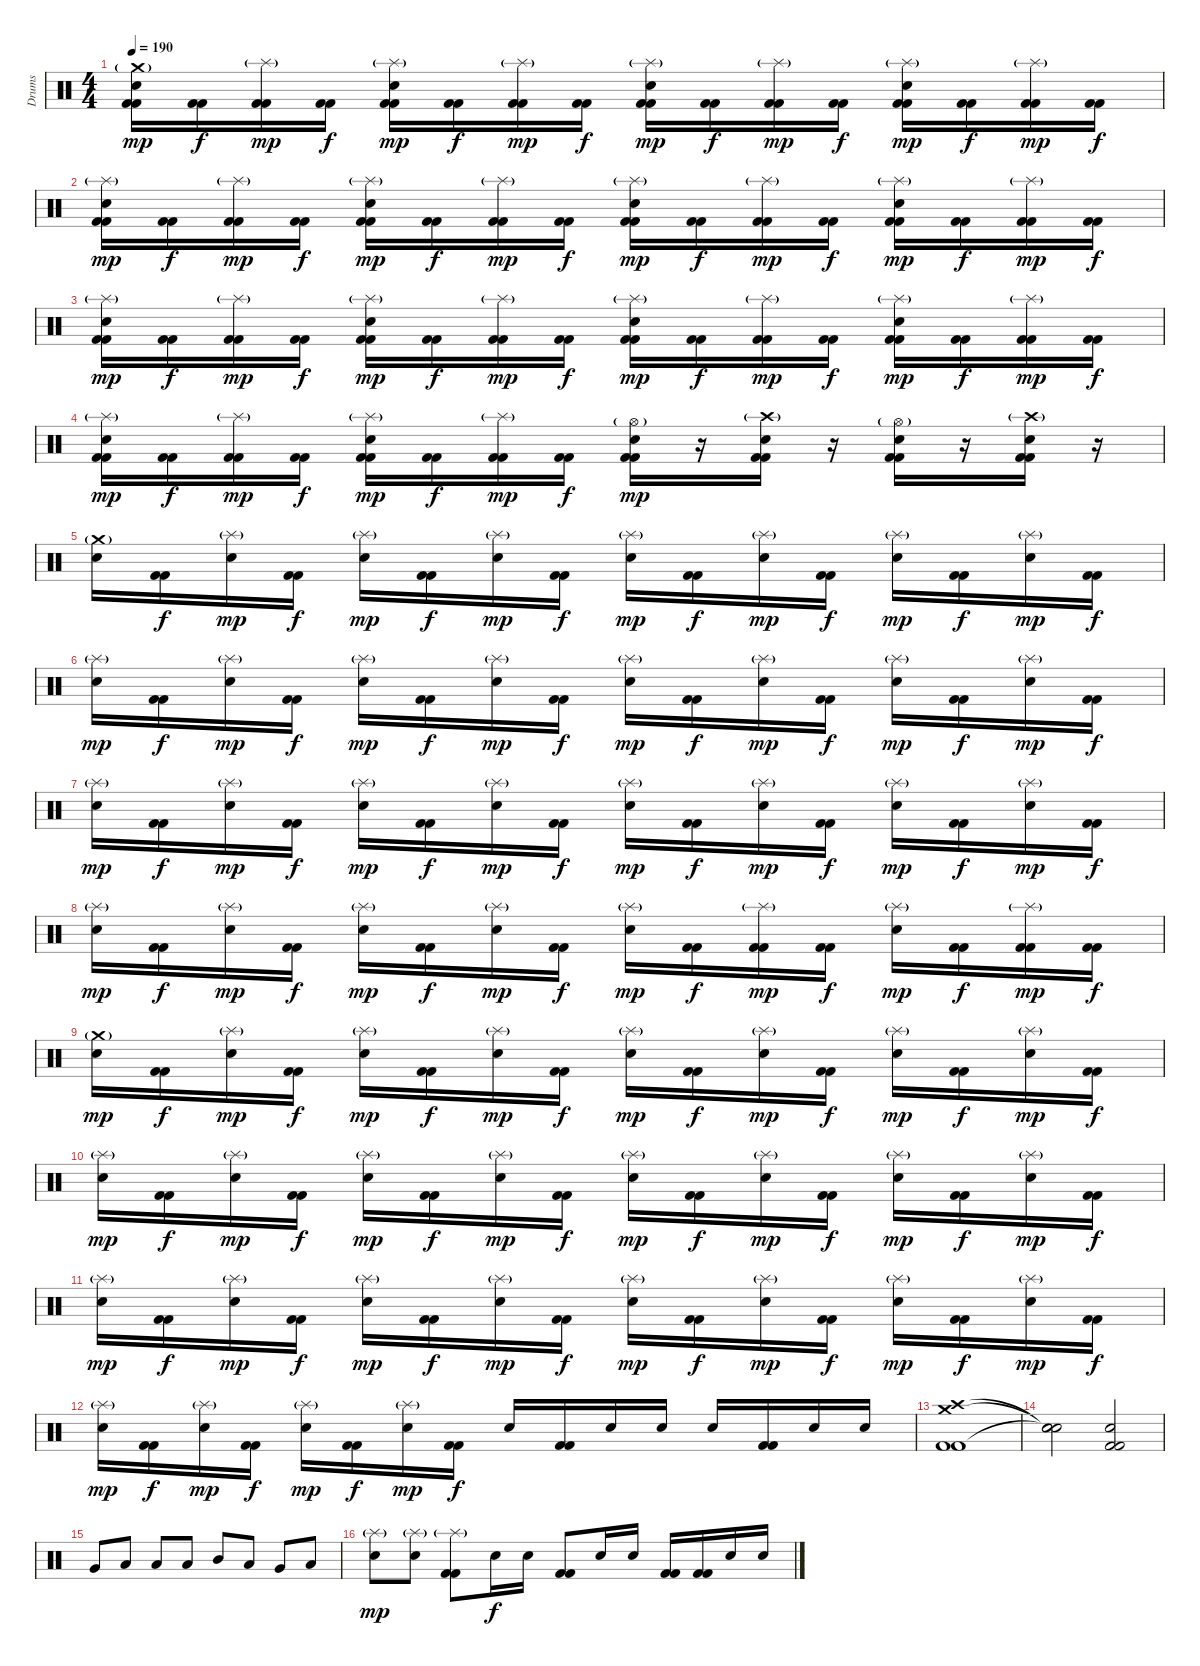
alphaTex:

\track ("Drums" "Drums") {instrument percussion}
\staff {score}
\articulation defaults
\ts (4 4)
\tempo 190
\clef neutral
\ks c
("Crash medium (hit)"{g} "Kick (hit) 2" "Electric Snare (hit)" "Kick (hit) 2").16{dy mp} ("Kick (hit) 2" "Kick (hit) 2").16{dy f} ("Splash (hit)"{g} "Kick (hit) 2" "Kick (hit) 2").16{dy mp} ("Kick (hit) 2" "Kick (hit) 2").16{dy f} ("Splash (hit)"{g} "Kick (hit) 2" "Electric Snare (hit)" "Kick (hit) 2").16{dy mp} ("Kick (hit) 2" "Kick (hit) 2").16{dy f} ("Splash (hit)"{g} "Kick (hit) 2" "Kick (hit) 2").16{dy mp} ("Kick (hit) 2" "Kick (hit) 2").16{dy f} ("Splash (hit)"{g} "Kick (hit) 2" "Electric Snare (hit)" "Kick (hit) 2").16{dy mp} ("Kick (hit) 2" "Kick (hit) 2").16{dy f} ("Splash (hit)"{g} "Kick (hit) 2" "Kick (hit) 2").16{dy mp} ("Kick (hit) 2" "Kick (hit) 2").16{dy f} ("Splash (hit)"{g} "Kick (hit) 2" "Electric Snare (hit)" "Kick (hit) 2").16{dy mp} ("Kick (hit) 2" "Kick (hit) 2").16{dy f} ("Splash (hit)"{g} "Kick (hit) 2" "Kick (hit) 2").16{dy mp} ("Kick (hit) 2" "Kick (hit) 2").16{dy f} |
("Splash (hit)"{g} "Kick (hit) 2" "Electric Snare (hit)" "Kick (hit) 2").16{dy mp} ("Kick (hit) 2" "Kick (hit) 2").16{dy f} ("Splash (hit)"{g} "Kick (hit) 2" "Kick (hit) 2").16{dy mp} ("Kick (hit) 2" "Kick (hit) 2").16{dy f} ("Splash (hit)"{g} "Kick (hit) 2" "Electric Snare (hit)" "Kick (hit) 2").16{dy mp} ("Kick (hit) 2" "Kick (hit) 2").16{dy f} ("Splash (hit)"{g} "Kick (hit) 2" "Kick (hit) 2").16{dy mp} ("Kick (hit) 2" "Kick (hit) 2").16{dy f} ("Splash (hit)"{g} "Kick (hit) 2" "Electric Snare (hit)" "Kick (hit) 2").16{dy mp} ("Kick (hit) 2" "Kick (hit) 2").16{dy f} ("Splash (hit)"{g} "Kick (hit) 2" "Kick (hit) 2").16{dy mp} ("Kick (hit) 2" "Kick (hit) 2").16{dy f} ("Splash (hit)"{g} "Kick (hit) 2" "Electric Snare (hit)" "Kick (hit) 2").16{dy mp} ("Kick (hit) 2" "Kick (hit) 2").16{dy f} ("Splash (hit)"{g} "Kick (hit) 2" "Kick (hit) 2").16{dy mp} ("Kick (hit) 2" "Kick (hit) 2").16{dy f} |
("Splash (hit)"{g} "Kick (hit) 2" "Electric Snare (hit)" "Kick (hit) 2").16{dy mp} ("Kick (hit) 2" "Kick (hit) 2").16{dy f} ("Splash (hit)"{g} "Kick (hit) 2" "Kick (hit) 2").16{dy mp} ("Kick (hit) 2" "Kick (hit) 2").16{dy f} ("Splash (hit)"{g} "Kick (hit) 2" "Electric Snare (hit)" "Kick (hit) 2").16{dy mp} ("Kick (hit) 2" "Kick (hit) 2").16{dy f} ("Splash (hit)"{g} "Kick (hit) 2" "Kick (hit) 2").16{dy mp} ("Kick (hit) 2" "Kick (hit) 2").16{dy f} ("Splash (hit)"{g} "Kick (hit) 2" "Electric Snare (hit)" "Kick (hit) 2").16{dy mp} ("Kick (hit) 2" "Kick (hit) 2").16{dy f} ("Splash (hit)"{g} "Kick (hit) 2" "Kick (hit) 2").16{dy mp} ("Kick (hit) 2" "Kick (hit) 2").16{dy f} ("Splash (hit)"{g} "Kick (hit) 2" "Electric Snare (hit)" "Kick (hit) 2").16{dy mp} ("Kick (hit) 2" "Kick (hit) 2").16{dy f} ("Splash (hit)"{g} "Kick (hit) 2" "Kick (hit) 2").16{dy mp} ("Kick (hit) 2" "Kick (hit) 2").16{dy f} |
("Splash (hit)"{g} "Kick (hit) 2" "Electric Snare (hit)" "Kick (hit) 2").16{dy mp} ("Kick (hit) 2" "Kick (hit) 2").16{dy f} ("Splash (hit)"{g} "Kick (hit) 2" "Kick (hit) 2").16{dy mp} ("Kick (hit) 2" "Kick (hit) 2").16{dy f} ("Splash (hit)"{g} "Kick (hit) 2" "Electric Snare (hit)" "Kick (hit) 2").16{dy mp} ("Kick (hit) 2" "Kick (hit) 2").16{dy f} ("Splash (hit)"{g} "Kick (hit) 2" "Kick (hit) 2").16{dy mp} ("Kick (hit) 2" "Kick (hit) 2").16{dy f} ("Kick (hit) 2" "Hi-Hat (open)"{g} "Electric Snare (hit)" "Kick (hit) 2").16{dy mp} r.16 ("Kick (hit) 2" "Crash high (hit)"{g} "Electric Snare (hit)" "Kick (hit) 2").16 r.16 ("Kick (hit) 2" "Hi-Hat (open)"{g} "Electric Snare (hit)" "Kick (hit) 2").16 r.16 ("Kick (hit) 2" "Crash high (hit)"{g} "Electric Snare (hit)" "Kick (hit) 2").16 r.16 |
("Crash medium (hit)"{g} "Electric Snare (hit)").16 ("Kick (hit) 2" "Kick (hit) 2").16{dy f} ("Splash (hit)"{g} "Electric Snare (hit)").16{dy mp} ("Kick (hit) 2" "Kick (hit) 2").16{dy f} ("Splash (hit)"{g} "Electric Snare (hit)").16{dy mp} ("Kick (hit) 2" "Kick (hit) 2").16{dy f} ("Splash (hit)"{g} "Electric Snare (hit)").16{dy mp} ("Kick (hit) 2" "Kick (hit) 2").16{dy f} ("Splash (hit)"{g} "Electric Snare (hit)").16{dy mp} ("Kick (hit) 2" "Kick (hit) 2").16{dy f} ("Splash (hit)"{g} "Electric Snare (hit)").16{dy mp} ("Kick (hit) 2" "Kick (hit) 2").16{dy f} ("Splash (hit)"{g} "Electric Snare (hit)").16{dy mp} ("Kick (hit) 2" "Kick (hit) 2").16{dy f} ("Splash (hit)"{g} "Electric Snare (hit)").16{dy mp} ("Kick (hit) 2" "Kick (hit) 2").16{dy f} |
("Splash (hit)"{g} "Electric Snare (hit)").16{dy mp} ("Kick (hit) 2" "Kick (hit) 2").16{dy f} ("Splash (hit)"{g} "Electric Snare (hit)").16{dy mp} ("Kick (hit) 2" "Kick (hit) 2").16{dy f} ("Splash (hit)"{g} "Electric Snare (hit)").16{dy mp} ("Kick (hit) 2" "Kick (hit) 2").16{dy f} ("Splash (hit)"{g} "Electric Snare (hit)").16{dy mp} ("Kick (hit) 2" "Kick (hit) 2").16{dy f} ("Splash (hit)"{g} "Electric Snare (hit)").16{dy mp} ("Kick (hit) 2" "Kick (hit) 2").16{dy f} ("Splash (hit)"{g} "Electric Snare (hit)").16{dy mp} ("Kick (hit) 2" "Kick (hit) 2").16{dy f} ("Splash (hit)"{g} "Electric Snare (hit)").16{dy mp} ("Kick (hit) 2" "Kick (hit) 2").16{dy f} ("Splash (hit)"{g} "Electric Snare (hit)").16{dy mp} ("Kick (hit) 2" "Kick (hit) 2").16{dy f} |
("Splash (hit)"{g} "Electric Snare (hit)").16{dy mp} ("Kick (hit) 2" "Kick (hit) 2").16{dy f} ("Splash (hit)"{g} "Electric Snare (hit)").16{dy mp} ("Kick (hit) 2" "Kick (hit) 2").16{dy f} ("Splash (hit)"{g} "Electric Snare (hit)").16{dy mp} ("Kick (hit) 2" "Kick (hit) 2").16{dy f} ("Splash (hit)"{g} "Electric Snare (hit)").16{dy mp} ("Kick (hit) 2" "Kick (hit) 2").16{dy f} ("Splash (hit)"{g} "Electric Snare (hit)").16{dy mp} ("Kick (hit) 2" "Kick (hit) 2").16{dy f} ("Splash (hit)"{g} "Electric Snare (hit)").16{dy mp} ("Kick (hit) 2" "Kick (hit) 2").16{dy f} ("Splash (hit)"{g} "Electric Snare (hit)").16{dy mp} ("Kick (hit) 2" "Kick (hit) 2").16{dy f} ("Splash (hit)"{g} "Electric Snare (hit)").16{dy mp} ("Kick (hit) 2" "Kick (hit) 2").16{dy f} |
("Splash (hit)"{g} "Electric Snare (hit)").16{dy mp} ("Kick (hit) 2" "Kick (hit) 2").16{dy f} ("Splash (hit)"{g} "Electric Snare (hit)").16{dy mp} ("Kick (hit) 2" "Kick (hit) 2").16{dy f} ("Splash (hit)"{g} "Electric Snare (hit)").16{dy mp} ("Kick (hit) 2" "Kick (hit) 2").16{dy f} ("Splash (hit)"{g} "Electric Snare (hit)").16{dy mp} ("Kick (hit) 2" "Kick (hit) 2").16{dy f} ("Splash (hit)"{g} "Electric Snare (hit)").16{dy mp} ("Kick (hit) 2" "Kick (hit) 2").16{dy f} ("Splash (hit)"{g} "Kick (hit) 2" "Kick (hit) 2").16{dy mp} ("Kick (hit) 2" "Kick (hit) 2").16{dy f} ("Splash (hit)"{g} "Electric Snare (hit)").16{dy mp} ("Kick (hit) 2" "Kick (hit) 2").16{dy f} ("Splash (hit)"{g} "Kick (hit) 2" "Kick (hit) 2").16{dy mp} ("Kick (hit) 2" "Kick (hit) 2").16{dy f} |
("Crash medium (hit)"{g} "Electric Snare (hit)").16{dy mp} ("Kick (hit) 2" "Kick (hit) 2").16{dy f} ("Splash (hit)"{g} "Electric Snare (hit)").16{dy mp} ("Kick (hit) 2" "Kick (hit) 2").16{dy f} ("Splash (hit)"{g} "Electric Snare (hit)").16{dy mp} ("Kick (hit) 2" "Kick (hit) 2").16{dy f} ("Splash (hit)"{g} "Electric Snare (hit)").16{dy mp} ("Kick (hit) 2" "Kick (hit) 2").16{dy f} ("Splash (hit)"{g} "Electric Snare (hit)").16{dy mp} ("Kick (hit) 2" "Kick (hit) 2").16{dy f} ("Splash (hit)"{g} "Electric Snare (hit)").16{dy mp} ("Kick (hit) 2" "Kick (hit) 2").16{dy f} ("Splash (hit)"{g} "Electric Snare (hit)").16{dy mp} ("Kick (hit) 2" "Kick (hit) 2").16{dy f} ("Splash (hit)"{g} "Electric Snare (hit)").16{dy mp} ("Kick (hit) 2" "Kick (hit) 2").16{dy f} |
("Splash (hit)"{g} "Electric Snare (hit)").16{dy mp} ("Kick (hit) 2" "Kick (hit) 2").16{dy f} ("Splash (hit)"{g} "Electric Snare (hit)").16{dy mp} ("Kick (hit) 2" "Kick (hit) 2").16{dy f} ("Splash (hit)"{g} "Electric Snare (hit)").16{dy mp} ("Kick (hit) 2" "Kick (hit) 2").16{dy f} ("Splash (hit)"{g} "Electric Snare (hit)").16{dy mp} ("Kick (hit) 2" "Kick (hit) 2").16{dy f} ("Splash (hit)"{g} "Electric Snare (hit)").16{dy mp} ("Kick (hit) 2" "Kick (hit) 2").16{dy f} ("Splash (hit)"{g} "Electric Snare (hit)").16{dy mp} ("Kick (hit) 2" "Kick (hit) 2").16{dy f} ("Splash (hit)"{g} "Electric Snare (hit)").16{dy mp} ("Kick (hit) 2" "Kick (hit) 2").16{dy f} ("Splash (hit)"{g} "Electric Snare (hit)").16{dy mp} ("Kick (hit) 2" "Kick (hit) 2").16{dy f} |
("Splash (hit)"{g} "Electric Snare (hit)").16{dy mp} ("Kick (hit) 2" "Kick (hit) 2").16{dy f} ("Splash (hit)"{g} "Electric Snare (hit)").16{dy mp} ("Kick (hit) 2" "Kick (hit) 2").16{dy f} ("Splash (hit)"{g} "Electric Snare (hit)").16{dy mp} ("Kick (hit) 2" "Kick (hit) 2").16{dy f} ("Splash (hit)"{g} "Electric Snare (hit)").16{dy mp} ("Kick (hit) 2" "Kick (hit) 2").16{dy f} ("Splash (hit)"{g} "Electric Snare (hit)").16{dy mp} ("Kick (hit) 2" "Kick (hit) 2").16{dy f} ("Splash (hit)"{g} "Electric Snare (hit)").16{dy mp} ("Kick (hit) 2" "Kick (hit) 2").16{dy f} ("Splash (hit)"{g} "Electric Snare (hit)").16{dy mp} ("Kick (hit) 2" "Kick (hit) 2").16{dy f} ("Splash (hit)"{g} "Electric Snare (hit)").16{dy mp} ("Kick (hit) 2" "Kick (hit) 2").16{dy f} |
("Splash (hit)"{g} "Electric Snare (hit)").16{dy mp} ("Kick (hit) 2" "Kick (hit) 2").16{dy f} ("Splash (hit)"{g} "Electric Snare (hit)").16{dy mp} ("Kick (hit) 2" "Kick (hit) 2").16{dy f} ("Splash (hit)"{g} "Electric Snare (hit)").16{dy mp} ("Kick (hit) 2" "Kick (hit) 2").16{dy f} ("Splash (hit)"{g} "Electric Snare (hit)").16{dy mp} ("Kick (hit) 2" "Kick (hit) 2").16{dy f} "Electric Snare (hit)".16 ("Kick (hit) 2" "Kick (hit) 2").16 "Electric Snare (hit)".16 "Electric Snare (hit)".16 "Electric Snare (hit)".16 ("Kick (hit) 2" "Kick (hit) 2").16 "Electric Snare (hit)".16 "Electric Snare (hit)".16 |
("Kick (hit) 2" "Crash medium (hit)" "Crash high (hit)" "Kick (hit) 2").1 |
("Snare (hit)"{t} "Snare (hit)"{t} "Snare (hit)"{t}).2 ("Kick (hit) 2" "Electric Snare (hit)" "Kick (hit) 2").2 |
"Very Low Tom (hit)".8 "Low Floor Tom (hit)".8 "Low Tom (hit)".8 "Low Floor Tom (hit)".8 "Mid Tom (hit)".8 "Low Floor Tom (hit)".8 "Very Low Tom (hit)".8 "Low Floor Tom (hit)".8 |
("Splash (hit)"{g} "Electric Snare (hit)").8{dy mp} ("Splash (hit)"{g} "Electric Snare (hit)").8 ("Kick (hit) 2" "Splash (hit)"{g} "Kick (hit) 2").8 "Electric Snare (hit)".16{dy f} "Electric Snare (hit)".16 ("Kick (hit) 2" "Kick (hit) 2").8 "Electric Snare (hit)".16 "Electric Snare (hit)".16 ("Kick (hit) 2" "Kick (hit) 2").16 ("Kick (hit) 2" "Kick (hit) 2").16 "Electric Snare (hit)".16 "Electric Snare (hit)".16
